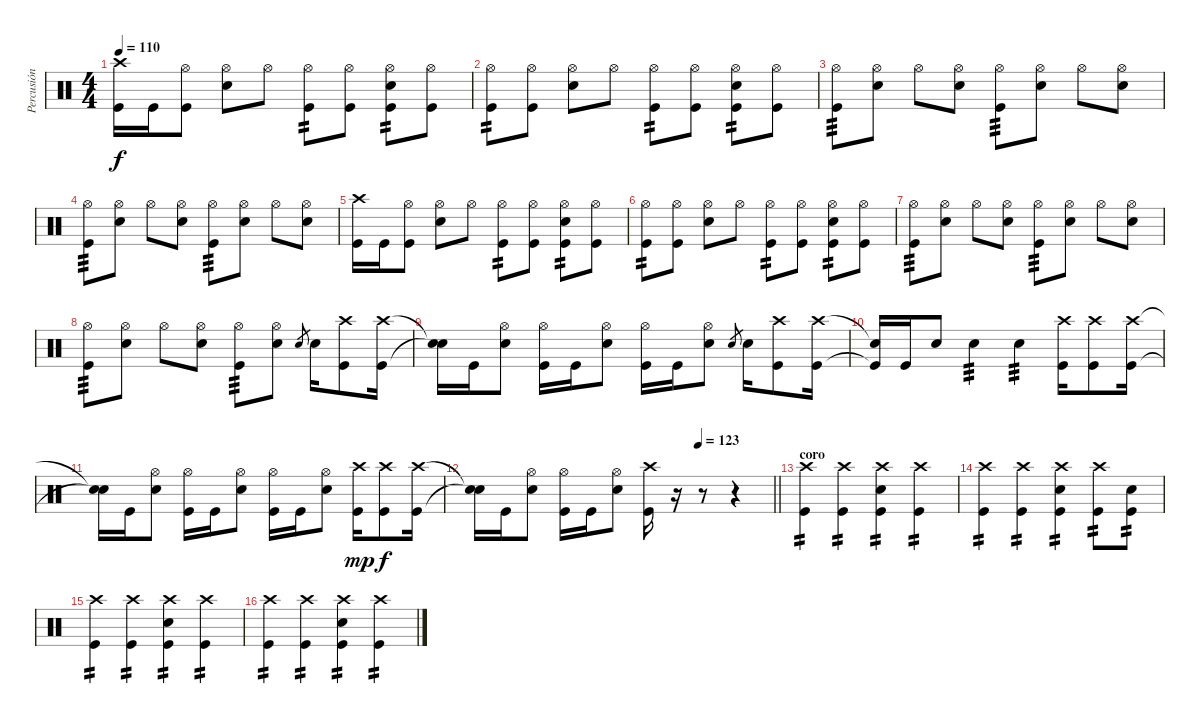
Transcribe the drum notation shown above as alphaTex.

\track ("Percusión" "Percusión") {instrument percussion}
\staff {score}
\articulation defaults
\ts (4 4)
\tempo 110
\clef neutral
\ks aminor
("Crash high (hit)" "Kick (hit)").16{dy f} "Kick (hit)".16 ("Hi-Hat (open)" "Kick (hit)").8 ("Electric Snare (hit)" "Hi-Hat (open)").8 "Hi-Hat (open)".8 ("Hi-Hat (open)" "Kick (hit)").8{tp 2} ("Hi-Hat (open)" "Kick (hit)").8 ("Electric Snare (hit)" "Hi-Hat (open)" "Kick (hit)").8{tp 2} ("Hi-Hat (open)" "Kick (hit)").8 |
("Hi-Hat (open)" "Kick (hit)").8{tp 2} ("Hi-Hat (open)" "Kick (hit)").8 ("Electric Snare (hit)" "Hi-Hat (open)").8 "Hi-Hat (open)".8 ("Hi-Hat (open)" "Kick (hit)").8{tp 2} ("Hi-Hat (open)" "Kick (hit)").8 ("Electric Snare (hit)" "Hi-Hat (open)" "Kick (hit)").8{tp 2} ("Hi-Hat (open)" "Kick (hit)").8 |
("Hi-Hat (open)" "Kick (hit)").8{tp 3} ("Electric Snare (hit)" "Hi-Hat (open)").8 "Hi-Hat (open)".8 ("Electric Snare (hit)" "Hi-Hat (open)").8 ("Hi-Hat (open)" "Kick (hit)").8{tp 3} ("Electric Snare (hit)" "Hi-Hat (open)").8 "Hi-Hat (open)".8 ("Electric Snare (hit)" "Hi-Hat (open)").8 |
("Hi-Hat (open)" "Kick (hit)").8{tp 3} ("Electric Snare (hit)" "Hi-Hat (open)").8 "Hi-Hat (open)".8 ("Electric Snare (hit)" "Hi-Hat (open)").8 ("Hi-Hat (open)" "Kick (hit)").8{tp 3} ("Electric Snare (hit)" "Hi-Hat (open)").8 "Hi-Hat (open)".8 ("Electric Snare (hit)" "Hi-Hat (open)").8 |
("Crash high (hit)" "Kick (hit)").16 "Kick (hit)".16 ("Hi-Hat (open)" "Kick (hit)").8 ("Electric Snare (hit)" "Hi-Hat (open)").8 "Hi-Hat (open)".8 ("Hi-Hat (open)" "Kick (hit)").8{tp 2} ("Hi-Hat (open)" "Kick (hit)").8 ("Electric Snare (hit)" "Hi-Hat (open)" "Kick (hit)").8{tp 2} ("Hi-Hat (open)" "Kick (hit)").8 |
("Hi-Hat (open)" "Kick (hit)").8{tp 2} ("Hi-Hat (open)" "Kick (hit)").8 ("Electric Snare (hit)" "Hi-Hat (open)").8 "Hi-Hat (open)".8 ("Hi-Hat (open)" "Kick (hit)").8{tp 2} ("Hi-Hat (open)" "Kick (hit)").8 ("Electric Snare (hit)" "Hi-Hat (open)" "Kick (hit)").8{tp 2} ("Hi-Hat (open)" "Kick (hit)").8 |
("Hi-Hat (open)" "Kick (hit)").8{tp 3} ("Electric Snare (hit)" "Hi-Hat (open)").8 "Hi-Hat (open)".8 ("Electric Snare (hit)" "Hi-Hat (open)").8 ("Hi-Hat (open)" "Kick (hit)").8{tp 3} ("Electric Snare (hit)" "Hi-Hat (open)").8 "Hi-Hat (open)".8 ("Electric Snare (hit)" "Hi-Hat (open)").8 |
("Hi-Hat (open)" "Kick (hit)").8{tp 3} ("Electric Snare (hit)" "Hi-Hat (open)").8 "Hi-Hat (open)".8 ("Electric Snare (hit)" "Hi-Hat (open)").8 ("Hi-Hat (open)" "Kick (hit)").8{tp 3} ("Electric Snare (hit)" "Hi-Hat (open)").8 "Electric Snare (hit)".8{gr} "Electric Snare (hit)".16 ("Crash high (hit)" "Kick (hit)").8 ("Crash high (hit)" "Kick (hit)").16 |
("Snare (hit)"{t} "Snare (hit)"{t}).16 "Kick (hit)".16 ("Electric Snare (hit)" "Hi-Hat (open)").8 ("Hi-Hat (open)" "Kick (hit)").16 "Kick (hit)".16 ("Electric Snare (hit)" "Hi-Hat (open)").8 ("Hi-Hat (open)" "Kick (hit)").16 "Kick (hit)".16 ("Electric Snare (hit)" "Hi-Hat (open)").8 "Electric Snare (hit)".8{gr} "Electric Snare (hit)".16 ("Crash high (hit)" "Kick (hit)").8 ("Crash high (hit)" "Kick (hit)").16 |
("Snare (hit)"{t} "Kick (hit)"{t}).16 "Kick (hit)".16 "Electric Snare (hit)".8 "Electric Snare (hit)".4{tp 3} "Electric Snare (hit)".4{tp 3} ("Crash high (hit)" "Kick (hit)").16 ("Crash high (hit)" "Kick (hit)").8 ("Crash high (hit)" "Kick (hit)").16 |
("Snare (hit)"{t} "Snare (hit)"{t}).16 "Kick (hit)".16 ("Electric Snare (hit)" "Hi-Hat (open)").8 ("Hi-Hat (open)" "Kick (hit)").16 "Kick (hit)".16 ("Electric Snare (hit)" "Hi-Hat (open)").8 ("Hi-Hat (open)" "Kick (hit)").16 "Kick (hit)".16 ("Electric Snare (hit)" "Hi-Hat (open)").8 ("Crash high (hit)" "Kick (hit)").16{dy mp} ("Crash high (hit)" "Kick (hit)").8{dy f} ("Crash high (hit)" "Kick (hit)").16 |
\tempo (123 0.75)
\barLineRight lightlight
("Snare (hit)"{t} "Snare (hit)"{t}).16 "Kick (hit)".16 ("Electric Snare (hit)" "Hi-Hat (open)").8 ("Hi-Hat (open)" "Kick (hit)").16 "Kick (hit)".16 ("Electric Snare (hit)" "Hi-Hat (open)").8 ("Crash high (hit)" "Kick (hit)").16 r.16 r.8 r.4 |
\section ("" "coro")
("Crash high (hit)" "Kick (hit)").4{tp 2} ("Crash high (hit)" "Kick (hit)").4{tp 2} ("Crash high (hit)" "Electric Snare (hit)" "Kick (hit)").4{tp 2} ("Crash high (hit)" "Kick (hit)").4{tp 2} |
("Crash high (hit)" "Kick (hit)").4{tp 2} ("Crash high (hit)" "Kick (hit)").4{tp 2} ("Crash high (hit)" "Electric Snare (hit)" "Kick (hit)").4{tp 2} ("Crash high (hit)" "Kick (hit)").8{tp 2} ("Electric Snare (hit)" "Kick (hit)").8{tp 2} |
("Crash high (hit)" "Kick (hit)").4{tp 2} ("Crash high (hit)" "Kick (hit)").4{tp 2} ("Crash high (hit)" "Electric Snare (hit)" "Kick (hit)").4{tp 2} ("Crash high (hit)" "Kick (hit)").4{tp 2} |
("Crash high (hit)" "Kick (hit)").4{tp 2} ("Crash high (hit)" "Kick (hit)").4{tp 2} ("Crash high (hit)" "Electric Snare (hit)" "Kick (hit)").4{tp 2} ("Crash high (hit)" "Kick (hit)").4{tp 2}
